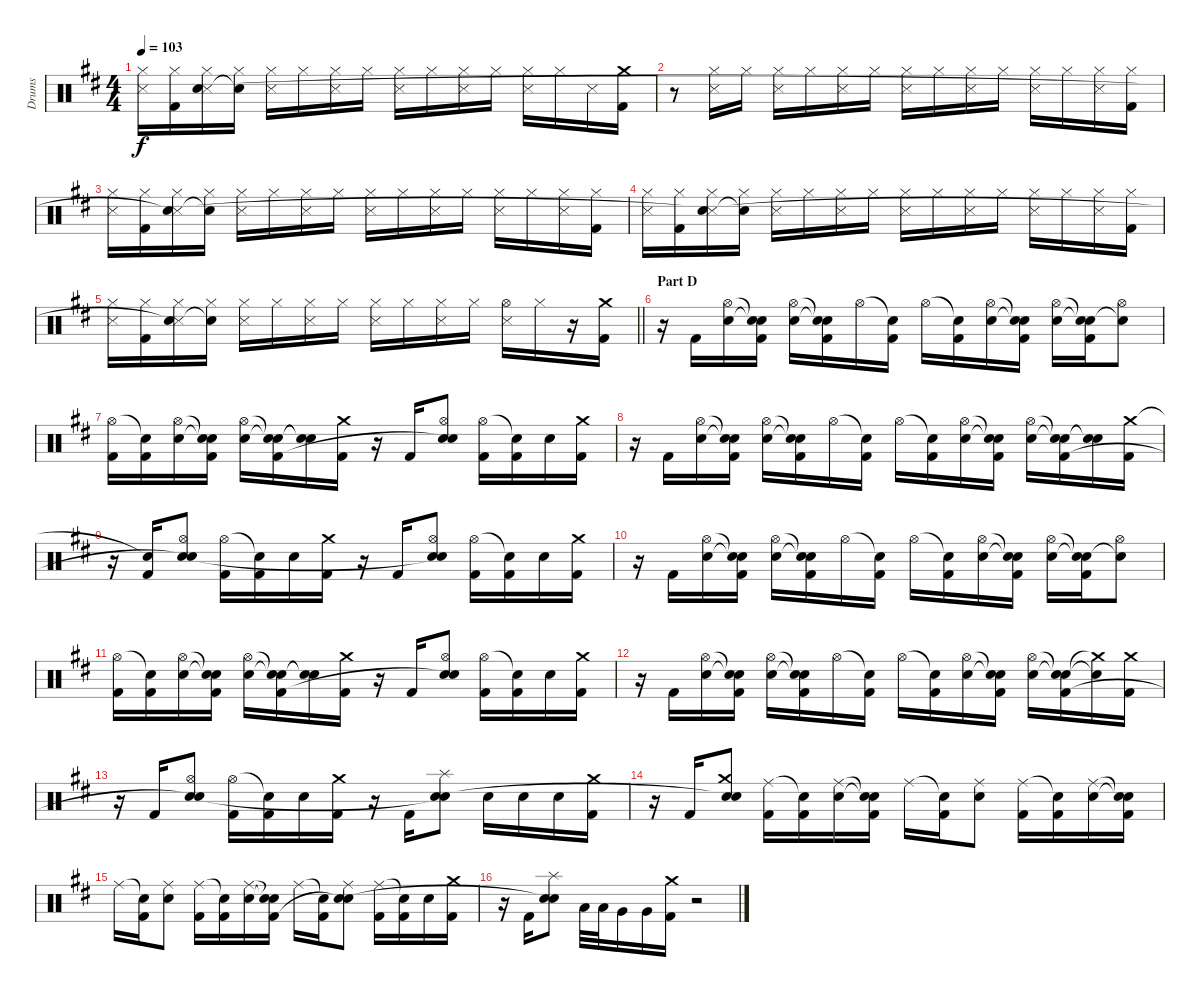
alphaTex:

\track ("Drums" "Drums") {instrument percussion}
\staff {score}
\articulation defaults
\ts (4 4)
\tempo 103
\clef neutral
\ks d
("Hi-Hat (closed)" "Snare (side stick) 3").16{dy f} ("Hi-Hat (closed)" "Kick (hit) 2").16 ("Hi-Hat (closed)" "Snare (side stick) 3" "Snare (hit)"{t}).16 ("Hi-Hat (closed)" "Snare (hit)"{t}).16 ("Hi-Hat (closed)" "Snare (side stick) 3").16 "Hi-Hat (closed)".16 ("Hi-Hat (closed)" "Snare (side stick) 3").16 "Hi-Hat (closed)".16 ("Hi-Hat (closed)" "Snare (side stick) 3").16 "Hi-Hat (closed)".16 ("Hi-Hat (closed)" "Snare (side stick) 3").16 "Hi-Hat (closed)".16 ("Hi-Hat (closed)" "Snare (side stick) 3").16 "Hi-Hat (closed)".16 "Snare (side stick) 3".16 ("Crash medium (hit)" "Kick (hit) 2").16 |
r.8 ("Hi-Hat (closed)" "Snare (side stick) 3").16 "Hi-Hat (closed)".16 ("Hi-Hat (closed)" "Snare (side stick) 3").16 "Hi-Hat (closed)".16 ("Hi-Hat (closed)" "Snare (side stick) 3").16 "Hi-Hat (closed)".16 ("Hi-Hat (closed)" "Snare (side stick) 3").16 "Hi-Hat (closed)".16 ("Hi-Hat (closed)" "Snare (side stick) 3").16 "Hi-Hat (closed)".16 ("Hi-Hat (closed)" "Snare (side stick) 3").16 "Hi-Hat (closed)".16 ("Hi-Hat (closed)" "Snare (side stick) 3").16 ("Hi-Hat (closed)" "Kick (hit) 2").16 |
("Hi-Hat (closed)" "Snare (side stick) 3").16 ("Hi-Hat (closed)" "Kick (hit) 2").16 ("Hi-Hat (closed)" "Snare (side stick) 3" "Snare (hit)"{t}).16 ("Hi-Hat (closed)" "Snare (hit)"{t}).16 ("Hi-Hat (closed)" "Snare (side stick) 3").16 "Hi-Hat (closed)".16 ("Hi-Hat (closed)" "Snare (side stick) 3").16 "Hi-Hat (closed)".16 ("Hi-Hat (closed)" "Snare (side stick) 3").16 "Hi-Hat (closed)".16 ("Hi-Hat (closed)" "Snare (side stick) 3").16 "Hi-Hat (closed)".16 ("Hi-Hat (closed)" "Snare (side stick) 3").16 "Hi-Hat (closed)".16 ("Hi-Hat (closed)" "Snare (side stick) 3").16 ("Hi-Hat (closed)" "Kick (hit) 2").16 |
("Hi-Hat (closed)" "Snare (side stick) 3").16 ("Hi-Hat (closed)" "Kick (hit) 2").16 ("Hi-Hat (closed)" "Snare (side stick) 3" "Snare (hit)"{t}).16 ("Hi-Hat (closed)" "Snare (hit)"{t}).16 ("Hi-Hat (closed)" "Snare (side stick) 3").16 "Hi-Hat (closed)".16 ("Hi-Hat (closed)" "Snare (side stick) 3").16 "Hi-Hat (closed)".16 ("Hi-Hat (closed)" "Snare (side stick) 3").16 "Hi-Hat (closed)".16 ("Hi-Hat (closed)" "Snare (side stick) 3").16 "Hi-Hat (closed)".16 ("Hi-Hat (closed)" "Snare (side stick) 3").16 "Hi-Hat (closed)".16 ("Hi-Hat (closed)" "Snare (side stick) 3").16 ("Hi-Hat (closed)" "Kick (hit) 2").16 |
\barLineRight lightlight
("Hi-Hat (closed)" "Snare (side stick) 3").16 ("Hi-Hat (closed)" "Kick (hit) 2").16 ("Hi-Hat (closed)" "Snare (side stick) 3" "Snare (hit)"{t}).16 ("Hi-Hat (closed)" "Snare (hit)"{t}).16 ("Hi-Hat (closed)" "Snare (side stick) 3").16 "Hi-Hat (closed)".16 ("Hi-Hat (closed)" "Snare (side stick) 3").16 "Hi-Hat (closed)".16 ("Hi-Hat (closed)" "Snare (side stick) 3").16 "Hi-Hat (closed)".16 ("Hi-Hat (closed)" "Snare (side stick) 3").16 "Hi-Hat (closed)".16 ("Hi-Hat (open)" "Snare (side stick) 3").16 "Hi-Hat (closed)".16 r.16 ("Crash medium (hit)" "Kick (hit) 2").16 |
\section ("" "Part D")
r.16 "Kick (hit) 2".16 ("Hi-Hat (open)" "Electric Snare (hit)").16 ("Snare (hit)"{t} "Snare (hit)"{t} "Kick (hit) 2").16 ("Hi-Hat (open)" "Electric Snare (hit)").16 ("Snare (hit)"{t} "Snare (hit)"{t} "Kick (hit) 2").16 "Hi-Hat (open)".16 ("Snare (hit)"{t} "Kick (hit) 2").16 "Hi-Hat (open)".16 ("Snare (hit)"{t} "Kick (hit) 2").16 ("Hi-Hat (open)" "Electric Snare (hit)").16 ("Snare (hit)"{t} "Snare (hit)"{t} "Kick (hit) 2").16 ("Hi-Hat (open)" "Electric Snare (hit)").16 ("Snare (hit)"{t} "Snare (hit)"{t} "Kick (hit) 2").16 ("Hi-Hat (open)" "Snare (hit)"{t}).8 |
("Hi-Hat (open)" "Kick (hit) 2").16 ("Snare (hit)"{t} "Kick (hit) 2").16 ("Hi-Hat (open)" "Electric Snare (hit)").16 ("Snare (hit)"{t} "Snare (hit)"{t} "Kick (hit) 2").16 ("Hi-Hat (open)" "Electric Snare (hit)").16 ("Snare (hit)"{t} "Snare (hit)"{t} "Kick (hit) 2").16 ("Snare (hit)"{t} "Snare (hit)"{t}).16 ("Crash medium (hit)" "Kick (hit) 2").16 r.16 "Kick (hit) 2".16 ("Hi-Hat (open)" "Electric Snare (hit)" "Snare (hit)"{t}).8 ("Hi-Hat (open)" "Kick (hit) 2").16 ("Snare (hit)"{t} "Kick (hit) 2").16 "Electric Snare (hit)".16 ("Crash medium (hit)" "Kick (hit) 2").16 |
r.16 "Kick (hit) 2".16 ("Hi-Hat (open)" "Electric Snare (hit)").16 ("Snare (hit)"{t} "Snare (hit)"{t} "Kick (hit) 2").16 ("Hi-Hat (open)" "Electric Snare (hit)").16 ("Snare (hit)"{t} "Snare (hit)"{t} "Kick (hit) 2").16 "Hi-Hat (open)".16 ("Snare (hit)"{t} "Kick (hit) 2").16 "Hi-Hat (open)".16 ("Snare (hit)"{t} "Kick (hit) 2").16 ("Hi-Hat (open)" "Electric Snare (hit)").16 ("Snare (hit)"{t} "Snare (hit)"{t} "Kick (hit) 2").16 ("Hi-Hat (open)" "Electric Snare (hit)").16 ("Snare (hit)"{t} "Snare (hit)"{t} "Kick (hit) 2").16 ("Snare (hit)"{t} "Snare (hit)"{t}).16 ("Crash medium (hit)" "Kick (hit) 2").16 |
r.16 ("Snare (hit)"{t} "Kick (hit) 2").16 ("Hi-Hat (open)" "Electric Snare (hit)" "Snare (hit)"{t}).8 ("Hi-Hat (open)" "Kick (hit) 2").16 ("Snare (hit)"{t} "Kick (hit) 2").16 "Electric Snare (hit)".16 ("Crash medium (hit)" "Kick (hit) 2").16 r.16 "Kick (hit) 2".16 ("Hi-Hat (open)" "Electric Snare (hit)" "Snare (hit)"{t}).8 ("Hi-Hat (open)" "Kick (hit) 2").16 ("Snare (hit)"{t} "Kick (hit) 2").16 "Electric Snare (hit)".16 ("Crash medium (hit)" "Kick (hit) 2").16 |
r.16 "Kick (hit) 2".16 ("Hi-Hat (open)" "Electric Snare (hit)").16 ("Snare (hit)"{t} "Snare (hit)"{t} "Kick (hit) 2").16 ("Hi-Hat (open)" "Electric Snare (hit)").16 ("Snare (hit)"{t} "Snare (hit)"{t} "Kick (hit) 2").16 "Hi-Hat (open)".16 ("Snare (hit)"{t} "Kick (hit) 2").16 "Hi-Hat (open)".16 ("Snare (hit)"{t} "Kick (hit) 2").16 ("Hi-Hat (open)" "Electric Snare (hit)").16 ("Snare (hit)"{t} "Snare (hit)"{t} "Kick (hit) 2").16 ("Hi-Hat (open)" "Electric Snare (hit)").16 ("Snare (hit)"{t} "Snare (hit)"{t} "Kick (hit) 2").16 ("Hi-Hat (open)" "Snare (hit)"{t}).8 |
("Hi-Hat (open)" "Kick (hit) 2").16 ("Snare (hit)"{t} "Kick (hit) 2").16 ("Hi-Hat (open)" "Electric Snare (hit)").16 ("Snare (hit)"{t} "Snare (hit)"{t} "Kick (hit) 2").16 ("Hi-Hat (open)" "Electric Snare (hit)").16 ("Snare (hit)"{t} "Snare (hit)"{t} "Kick (hit) 2").16 ("Snare (hit)"{t} "Snare (hit)"{t}).16 ("Crash medium (hit)" "Kick (hit) 2").16 r.16 "Kick (hit) 2".16 ("Hi-Hat (open)" "Electric Snare (hit)" "Snare (hit)"{t}).8 ("Hi-Hat (open)" "Kick (hit) 2").16 ("Snare (hit)"{t} "Kick (hit) 2").16 "Electric Snare (hit)".16 ("Crash medium (hit)" "Kick (hit) 2").16 |
r.16 "Kick (hit) 2".16 ("Hi-Hat (open)" "Electric Snare (hit)").16 ("Snare (hit)"{t} "Snare (hit)"{t} "Kick (hit) 2").16 ("Hi-Hat (open)" "Electric Snare (hit)").16 ("Snare (hit)"{t} "Snare (hit)"{t} "Kick (hit) 2").16 "Hi-Hat (open)".16 ("Snare (hit)"{t} "Kick (hit) 2").16 "Hi-Hat (open)".16 ("Snare (hit)"{t} "Kick (hit) 2").16 ("Hi-Hat (open)" "Electric Snare (hit)").16 ("Snare (hit)"{t} "Snare (hit)"{t} "Kick (hit) 2").16 ("Hi-Hat (open)" "Electric Snare (hit)").16 ("Snare (hit)"{t} "Snare (hit)"{t} "Kick (hit) 2").16 ("Crash medium (hit)"{t} "Snare (hit)"{t}).16 ("Crash medium (hit)" "Kick (hit) 2").16 |
r.16 "Kick (hit) 2".16 ("Hi-Hat (open)" "Electric Snare (hit)" "Snare (hit)"{t}).8 ("Hi-Hat (open)" "Kick (hit) 2").16 ("Snare (hit)"{t} "Kick (hit) 2").16 "Electric Snare (hit)".16 ("Crash medium (hit)" "Kick (hit) 2").16 r.16 "Kick (hit) 2".16 ("Splash (hit)" "Electric Snare (hit)" "Snare (hit)"{t}).8 "Electric Snare (hit)".16 "Electric Snare (hit)".16 "Electric Snare (hit)".16 ("Crash medium (hit)" "Kick (hit) 2").16 |
r.16 "Kick (hit) 2".16 ("Crash medium (hit)" "Electric Snare (hit)" "Snare (hit)"{t}).8 ("Ride (middle)" "Kick (hit) 2").16 ("Snare (hit)"{t} "Kick (hit) 2").16 ("Ride (middle)" "Electric Snare (hit)").16 ("Snare (hit)"{t} "Snare (hit)"{t} "Kick (hit) 2").16 "Ride (middle)".16 ("Snare (hit)"{t} "Kick (hit) 2").16 ("Ride (middle)" "Electric Snare (hit)").8 ("Ride (middle)" "Kick (hit) 2").16 ("Snare (hit)"{t} "Kick (hit) 2").16 ("Ride (middle)" "Electric Snare (hit)").16 ("Snare (hit)"{t} "Snare (hit)"{t} "Kick (hit) 2").16 |
"Ride (middle)".16 ("Snare (hit)"{t} "Kick (hit) 2").16 ("Ride (middle)" "Electric Snare (hit)").8 ("Ride (middle)" "Kick (hit) 2").16 ("Snare (hit)"{t} "Kick (hit) 2").16 ("Ride (middle)" "Electric Snare (hit)").16 ("Snare (hit)"{t} "Snare (hit)"{t} "Kick (hit) 2").16 "Ride (middle)".16 ("Snare (hit)"{t} "Kick (hit) 2").16 ("Ride (middle)" "Electric Snare (hit)" "Snare (hit)"{t}).8 ("Ride (middle)" "Kick (hit) 2").16 ("Snare (hit)"{t} "Kick (hit) 2").16 "Electric Snare (hit)".16 ("Crash medium (hit)" "Kick (hit) 2").16 |
r.16 "Kick (hit) 2".16 ("Splash (hit)" "Electric Snare (hit)" "Snare (hit)"{t}).8 "Low Tom (hit)".32 "Low Tom (hit)".32 "Very Low Tom (hit)".16 "Very Low Tom (hit)".16 ("Crash medium (hit)" "Kick (hit) 2").16 r.2
